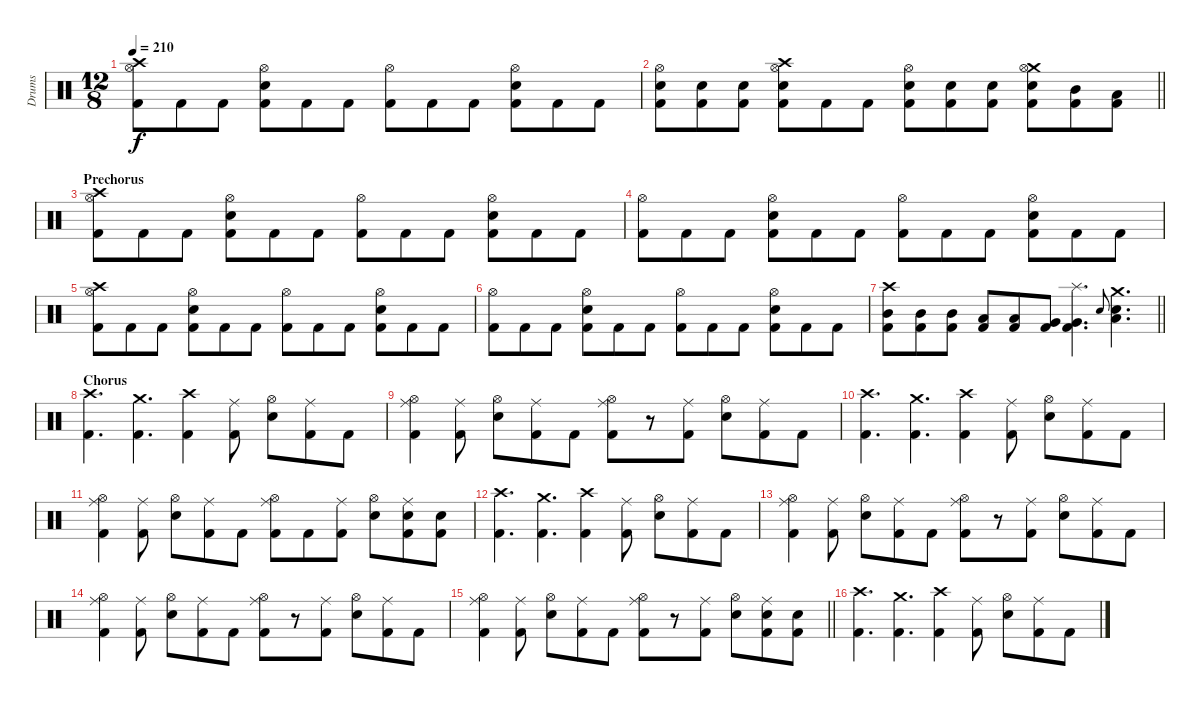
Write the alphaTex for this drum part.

\track ("Drums" "Drums") {instrument percussion}
\staff {score}
\articulation defaults
\ts (12 8)
\tempo 210
\clef neutral
\ks c
("Crash high (hit)" "Hi-Hat (open)" "Kick (hit) 2").8{dy f} "Kick (hit) 2".8 "Kick (hit) 2".8 ("Hi-Hat (open)" "Snare (hit) 2" "Kick (hit) 2").8 "Kick (hit) 2".8 "Kick (hit) 2".8 ("Hi-Hat (open)" "Kick (hit) 2").8 "Kick (hit) 2".8 "Kick (hit) 2".8 ("Hi-Hat (open)" "Snare (hit) 2" "Kick (hit) 2").8 "Kick (hit) 2".8 "Kick (hit) 2".8 |
\barLineRight lightlight
("Hi-Hat (open)" "Snare (hit) 2" "Kick (hit) 2").8 ("Snare (hit) 2" "Kick (hit) 2").8 ("Snare (hit) 2" "Kick (hit) 2").8 ("Crash high (hit)" "Hi-Hat (open)" "Snare (hit) 2" "Kick (hit) 2").8 "Kick (hit) 2".8 "Kick (hit) 2".8 ("Hi-Hat (open)" "Snare (hit) 2" "Kick (hit) 2").8 ("Snare (hit) 2" "Kick (hit) 2").8 ("Snare (hit) 2" "Kick (hit) 2").8 ("Crash medium (hit)" "Hi-Hat (open)" "Snare (hit) 2" "Kick (hit) 2").8 ("Mid Tom (hit)" "Kick (hit) 2").8 ("Low Tom (hit)" "Kick (hit) 2").8 |
\section ("" "Prechorus")
("Crash high (hit)" "Hi-Hat (open)" "Kick (hit) 2").8 "Kick (hit) 2".8 "Kick (hit) 2".8 ("Hi-Hat (open)" "Snare (hit) 2" "Kick (hit) 2").8 "Kick (hit) 2".8 "Kick (hit) 2".8 ("Hi-Hat (open)" "Kick (hit) 2").8 "Kick (hit) 2".8 "Kick (hit) 2".8 ("Hi-Hat (open)" "Snare (hit) 2" "Kick (hit) 2").8 "Kick (hit) 2".8 "Kick (hit) 2".8 |
("Hi-Hat (open)" "Kick (hit) 2").8 "Kick (hit) 2".8 "Kick (hit) 2".8 ("Hi-Hat (open)" "Snare (hit) 2" "Kick (hit) 2").8 "Kick (hit) 2".8 "Kick (hit) 2".8 ("Hi-Hat (open)" "Kick (hit) 2").8 "Kick (hit) 2".8 "Kick (hit) 2".8 ("Hi-Hat (open)" "Snare (hit) 2" "Kick (hit) 2").8 "Kick (hit) 2".8 "Kick (hit) 2".8 |
("Crash high (hit)" "Hi-Hat (open)" "Kick (hit) 2").8 "Kick (hit) 2".8 "Kick (hit) 2".8 ("Hi-Hat (open)" "Snare (hit) 2" "Kick (hit) 2").8 "Kick (hit) 2".8 "Kick (hit) 2".8 ("Hi-Hat (open)" "Kick (hit) 2").8 "Kick (hit) 2".8 "Kick (hit) 2".8 ("Hi-Hat (open)" "Snare (hit) 2" "Kick (hit) 2").8 "Kick (hit) 2".8 "Kick (hit) 2".8 |
("Hi-Hat (open)" "Kick (hit) 2").8 "Kick (hit) 2".8 "Kick (hit) 2".8 ("Hi-Hat (open)" "Snare (hit) 2" "Kick (hit) 2").8 "Kick (hit) 2".8 "Kick (hit) 2".8 ("Hi-Hat (open)" "Kick (hit) 2").8 "Kick (hit) 2".8 "Kick (hit) 2".8 ("Hi-Hat (open)" "Snare (hit) 2" "Kick (hit) 2").8 "Kick (hit) 2".8 "Kick (hit) 2".8 |
\barLineRight lightlight
("Crash high (hit)" "Mid Tom (hit)" "Kick (hit) 2").8 ("Mid Tom (hit)" "Kick (hit) 2").8 ("Mid Tom (hit)" "Kick (hit) 2").8 ("Low Tom (hit)" "Kick (hit) 2").8 ("Low Tom (hit)" "Kick (hit) 2").8 ("Very Low Tom (hit)" "Kick (hit) 2").8 ("Splash (hit)" "Very Low Tom (hit)" "Kick (hit) 2").4{d} "Snare (hit) 2".8{gr onbeat} ("Crash medium (hit)" "Low Floor Tom (hit)" "Snare (hit) 2").4{d} |
\section ("" "Chorus")
("Crash high (hit)" "Kick (hit) 2").4{d} ("Crash medium (hit)" "Kick (hit) 2").4{d} ("Crash high (hit)" "Kick (hit) 2").4 ("Ride (middle)" "Kick (hit) 2").8 ("Hi-Hat (open)" "Snare (hit) 2").8 ("Ride (middle)" "Kick (hit) 2").8 "Kick (hit) 2".8 |
("Ride (middle)" "Hi-Hat (open)" "Kick (hit) 2").4 ("Ride (middle)" "Kick (hit) 2").8 ("Hi-Hat (open)" "Snare (hit) 2").8 ("Ride (middle)" "Kick (hit) 2").8 "Kick (hit) 2".8 ("Ride (middle)" "Hi-Hat (open)" "Kick (hit) 2").8 r.8 ("Ride (middle)" "Kick (hit) 2").8 ("Hi-Hat (open)" "Snare (hit) 2").8 ("Ride (middle)" "Kick (hit) 2").8 "Kick (hit) 2".8 |
("Crash high (hit)" "Kick (hit) 2").4{d} ("Crash medium (hit)" "Kick (hit) 2").4{d} ("Crash high (hit)" "Kick (hit) 2").4 ("Ride (middle)" "Kick (hit) 2").8 ("Hi-Hat (open)" "Snare (hit) 2").8 ("Ride (middle)" "Kick (hit) 2").8 "Kick (hit) 2".8 |
("Ride (middle)" "Hi-Hat (open)" "Kick (hit) 2").4 ("Ride (middle)" "Kick (hit) 2").8 ("Hi-Hat (open)" "Snare (hit) 2").8 ("Ride (middle)" "Kick (hit) 2").8 "Kick (hit) 2".8 ("Ride (middle)" "Hi-Hat (open)" "Kick (hit) 2").8 "Kick (hit) 2".8 ("Ride (middle)" "Kick (hit) 2").8 ("Hi-Hat (open)" "Snare (hit) 2").8 ("Ride (middle)" "Snare (hit) 2" "Kick (hit) 2").8 ("Snare (hit) 2" "Kick (hit) 2").8 |
("Crash high (hit)" "Kick (hit) 2").4{d} ("Crash medium (hit)" "Kick (hit) 2").4{d} ("Crash high (hit)" "Kick (hit) 2").4 ("Ride (middle)" "Kick (hit) 2").8 ("Hi-Hat (open)" "Snare (hit) 2").8 ("Ride (middle)" "Kick (hit) 2").8 "Kick (hit) 2".8 |
("Ride (middle)" "Hi-Hat (open)" "Kick (hit) 2").4 ("Ride (middle)" "Kick (hit) 2").8 ("Hi-Hat (open)" "Snare (hit) 2").8 ("Ride (middle)" "Kick (hit) 2").8 "Kick (hit) 2".8 ("Ride (middle)" "Hi-Hat (open)" "Kick (hit) 2").8 r.8 ("Ride (middle)" "Kick (hit) 2").8 ("Hi-Hat (open)" "Snare (hit) 2").8 ("Ride (middle)" "Kick (hit) 2").8 "Kick (hit) 2".8 |
("Ride (middle)" "Hi-Hat (open)" "Kick (hit) 2").4 ("Ride (middle)" "Kick (hit) 2").8 ("Hi-Hat (open)" "Snare (hit) 2").8 ("Ride (middle)" "Kick (hit) 2").8 "Kick (hit) 2".8 ("Ride (middle)" "Hi-Hat (open)" "Kick (hit) 2").8 r.8 ("Ride (middle)" "Kick (hit) 2").8 ("Hi-Hat (open)" "Snare (hit) 2").8 ("Ride (middle)" "Kick (hit) 2").8 "Kick (hit) 2".8 |
\barLineRight lightlight
("Ride (middle)" "Hi-Hat (open)" "Kick (hit) 2").4 ("Ride (middle)" "Kick (hit) 2").8 ("Hi-Hat (open)" "Snare (hit) 2").8 ("Ride (middle)" "Kick (hit) 2").8 "Kick (hit) 2".8 ("Ride (middle)" "Hi-Hat (open)" "Kick (hit) 2").8 r.8 ("Ride (middle)" "Kick (hit) 2").8 ("Hi-Hat (open)" "Snare (hit) 2").8 ("Ride (middle)" "Snare (hit) 2" "Kick (hit) 2").8 ("Snare (hit) 2" "Kick (hit) 2").8 |
("Crash high (hit)" "Kick (hit) 2").4{d} ("Crash medium (hit)" "Kick (hit) 2").4{d} ("Crash high (hit)" "Kick (hit) 2").4 ("Ride (middle)" "Kick (hit) 2").8 ("Hi-Hat (open)" "Snare (hit) 2").8 ("Ride (middle)" "Kick (hit) 2").8 "Kick (hit) 2".8
